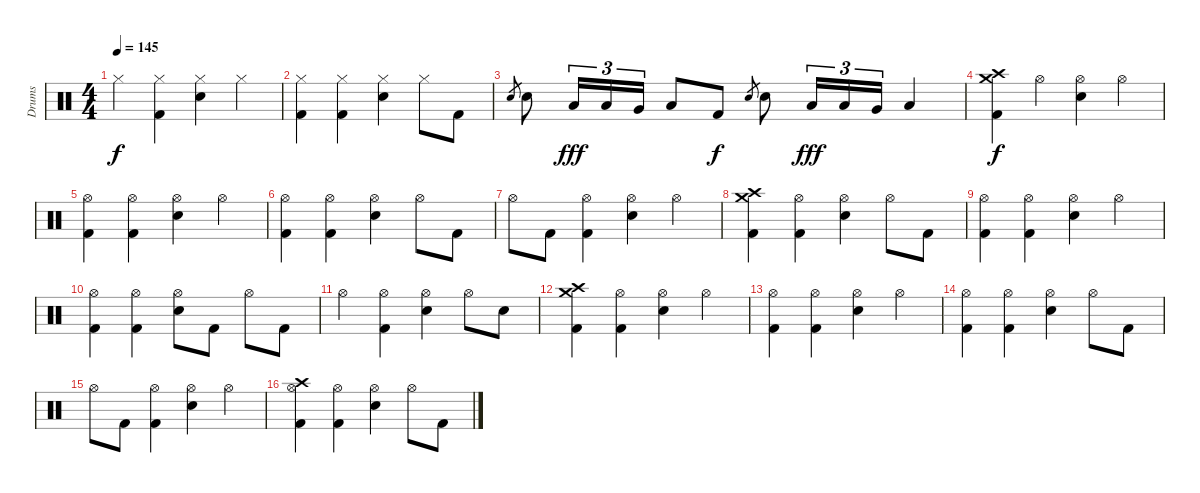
\track ("Drums" "Drums") {instrument percussion}
\staff {score}
\articulation defaults
\ts (4 4)
\tempo 145
\clef neutral
\ks c "Hi-Hat (closed)".4{dy f}
("Hi-Hat (closed)" "Kick (hit) 2").4 ("Hi-Hat (closed)" "Electric Snare (hit)").4 "Hi-Hat (closed)".4 |
("Hi-Hat (closed)" "Kick (hit) 2").4 ("Hi-Hat (closed)" "Kick (hit) 2").4 ("Hi-Hat (closed)" "Electric Snare (hit)").4 "Hi-Hat (closed)".8 "Kick (hit) 2".8 |
"Electric Snare (hit)".8{gr} "Electric Snare (hit)".8 "Low Tom (hit)".16{tu (3 2) dy fff} "Low Tom (hit)".16{tu (3 2)} "Very Low Tom (hit)".16{tu (3 2)} "Low Floor Tom (hit)".8 "Kick (hit) 2".8{dy f} "Electric Snare (hit)".8{gr} "Electric Snare (hit)".8 "Low Tom (hit)".16{tu (3 2) dy fff} "Low Tom (hit)".16{tu (3 2)} "Very Low Tom (hit)".16{tu (3 2)} "Low Floor Tom (hit)".4 |
("Crash medium (hit)" "Crash high (hit)" "Kick (hit) 2").4{dy f} "Hi-Hat (open)".4 ("Hi-Hat (open)" "Electric Snare (hit)").4 "Hi-Hat (open)".4 |
("Hi-Hat (open)" "Kick (hit) 2").4 ("Hi-Hat (open)" "Kick (hit) 2").4 ("Hi-Hat (open)" "Electric Snare (hit)").4 "Hi-Hat (open)".4 |
("Hi-Hat (open)" "Kick (hit) 2").4 ("Hi-Hat (open)" "Kick (hit) 2").4 ("Hi-Hat (open)" "Electric Snare (hit)").4 "Hi-Hat (open)".8 "Kick (hit) 2".8 |
"Hi-Hat (open)".8 "Kick (hit) 2".8 ("Hi-Hat (open)" "Kick (hit) 2").4 ("Hi-Hat (open)" "Electric Snare (hit)").4 "Hi-Hat (open)".4 |
("Crash medium (hit)" "Crash high (hit)" "Kick (hit) 2").4 ("Hi-Hat (open)" "Kick (hit) 2").4 ("Hi-Hat (open)" "Electric Snare (hit)").4 "Hi-Hat (open)".8 "Kick (hit) 2".8 |
("Hi-Hat (open)" "Kick (hit) 2").4 ("Hi-Hat (open)" "Kick (hit) 2").4 ("Hi-Hat (open)" "Electric Snare (hit)").4 "Hi-Hat (open)".4 |
("Hi-Hat (open)" "Kick (hit) 2").4 ("Hi-Hat (open)" "Kick (hit) 2").4 ("Hi-Hat (open)" "Electric Snare (hit)").8 "Kick (hit) 2".8 "Hi-Hat (open)".8 "Kick (hit) 2".8 |
"Hi-Hat (open)".4 ("Hi-Hat (open)" "Kick (hit) 2").4 ("Hi-Hat (open)" "Electric Snare (hit)").4 "Hi-Hat (open)".8 "Electric Snare (hit)".8 |
("Crash medium (hit)" "Crash high (hit)" "Kick (hit) 2").4 ("Hi-Hat (open)" "Kick (hit) 2").4 ("Hi-Hat (open)" "Electric Snare (hit)").4 "Hi-Hat (open)".4 |
("Hi-Hat (open)" "Kick (hit) 2").4 ("Hi-Hat (open)" "Kick (hit) 2").4 ("Hi-Hat (open)" "Electric Snare (hit)").4 "Hi-Hat (open)".4 |
("Hi-Hat (open)" "Kick (hit) 2").4 ("Hi-Hat (open)" "Kick (hit) 2").4 ("Hi-Hat (open)" "Electric Snare (hit)").4 "Hi-Hat (open)".8 "Kick (hit) 2".8 |
"Hi-Hat (open)".8 "Kick (hit) 2".8 ("Hi-Hat (open)" "Kick (hit) 2").4 ("Hi-Hat (open)" "Electric Snare (hit)").4 "Hi-Hat (open)".4 |
("Crash high (hit)" "Hi-Hat (open)" "Kick (hit) 2").4 ("Hi-Hat (open)" "Kick (hit) 2").4 ("Hi-Hat (open)" "Electric Snare (hit)").4 "Hi-Hat (open)".8 "Kick (hit) 2".8
